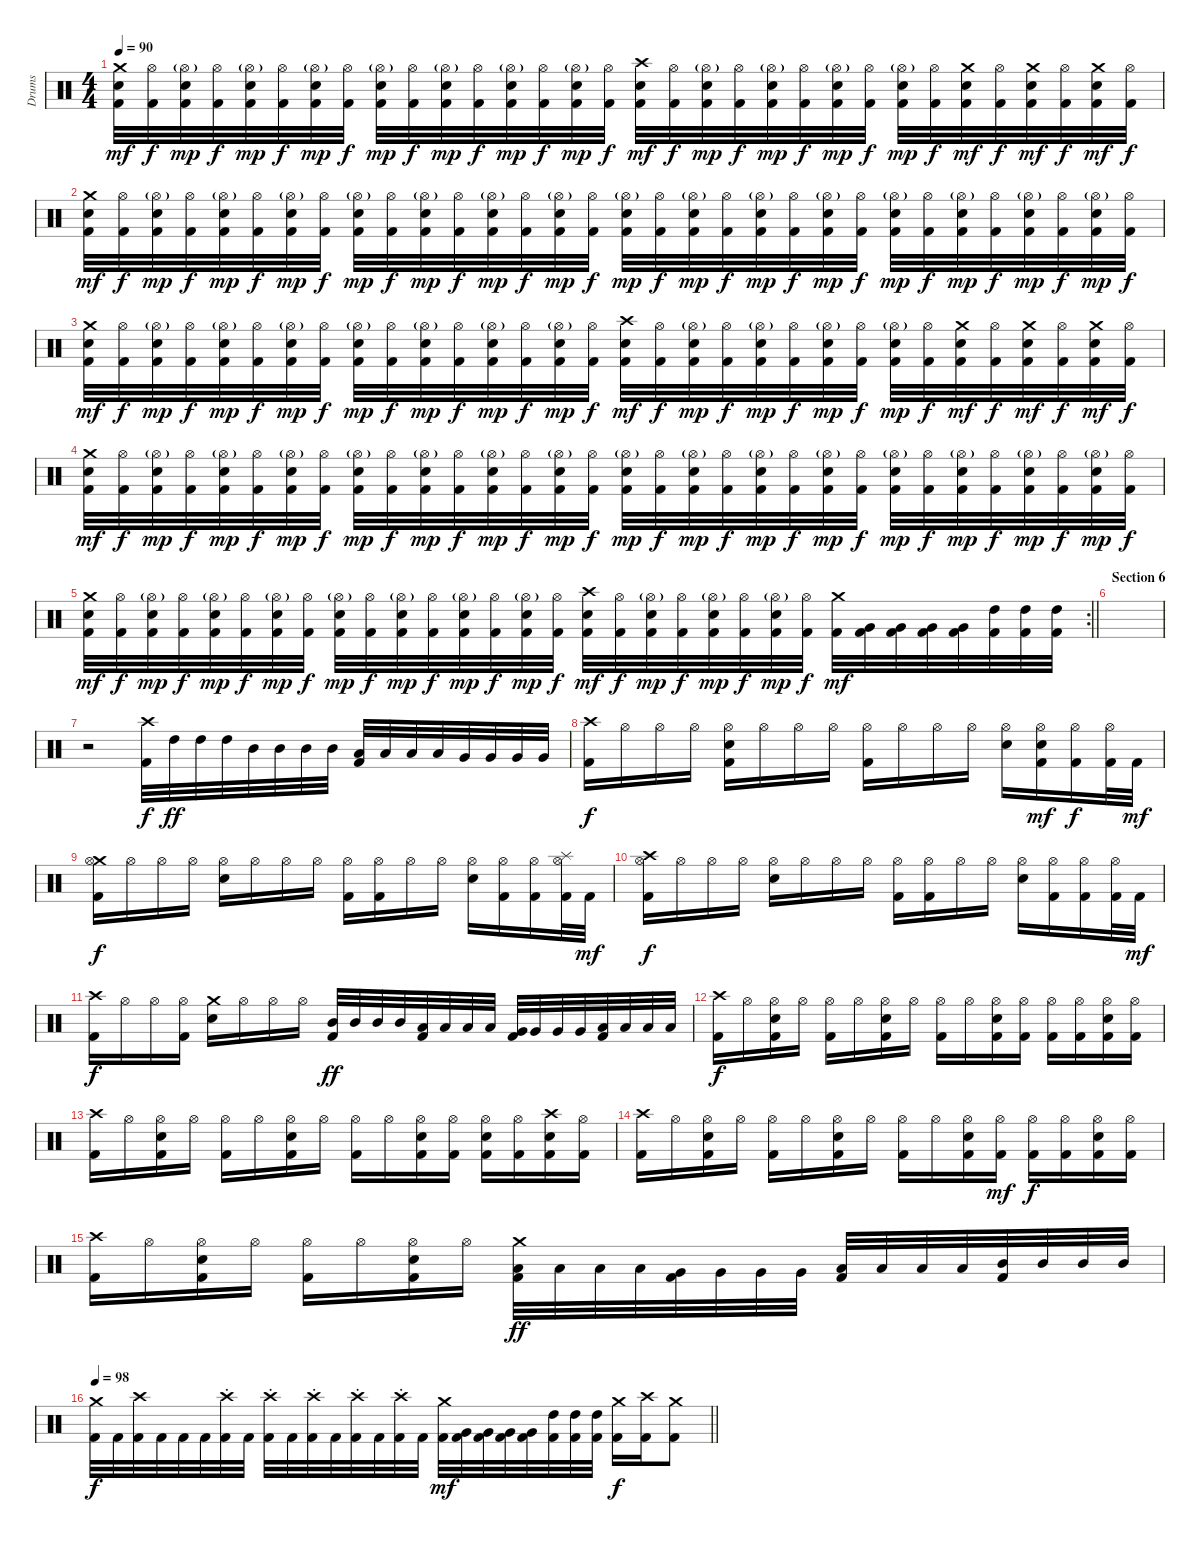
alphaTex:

\track ("Drums" "Drums") {instrument percussion}
\staff {score}
\articulation defaults
\ts (4 4)
\tempo 90
\clef neutral
\ks c
("Crash medium (hit)" "Snare (hit) 2" "Kick (hit) 2").32{dy mf} ("Hi-Hat (open)" "Kick (hit) 2").32{dy f} ("Snare (hit) 2" "Hi-Hat (open)"{g} "Kick (hit) 2").32{dy mp} ("Hi-Hat (open)" "Kick (hit) 2").32{dy f} ("Snare (hit) 2" "Hi-Hat (open)"{g} "Kick (hit) 2").32{dy mp} ("Hi-Hat (open)" "Kick (hit) 2").32{dy f} ("Snare (hit) 2" "Hi-Hat (open)"{g} "Kick (hit) 2").32{dy mp} ("Hi-Hat (open)" "Kick (hit) 2").32{dy f} ("Snare (hit) 2" "Hi-Hat (open)"{g} "Kick (hit) 2").32{dy mp} ("Hi-Hat (open)" "Kick (hit) 2").32{dy f} ("Snare (hit) 2" "Hi-Hat (open)"{g} "Kick (hit) 2").32{dy mp} ("Hi-Hat (open)" "Kick (hit) 2").32{dy f} ("Snare (hit) 2" "Hi-Hat (open)"{g} "Kick (hit) 2").32{dy mp} ("Hi-Hat (open)" "Kick (hit) 2").32{dy f} ("Snare (hit) 2" "Hi-Hat (open)"{g} "Kick (hit) 2").32{dy mp} ("Hi-Hat (open)" "Kick (hit) 2").32{dy f} ("Crash high (hit)" "Snare (hit) 2" "Kick (hit) 2").32{dy mf} ("Hi-Hat (open)" "Kick (hit) 2").32{dy f} ("Snare (hit) 2" "Hi-Hat (open)"{g} "Kick (hit) 2").32{dy mp} ("Hi-Hat (open)" "Kick (hit) 2").32{dy f} ("Snare (hit) 2" "Hi-Hat (open)"{g} "Kick (hit) 2").32{dy mp} ("Hi-Hat (open)" "Kick (hit) 2").32{dy f} ("Snare (hit) 2" "Hi-Hat (open)"{g} "Kick (hit) 2").32{dy mp} ("Hi-Hat (open)" "Kick (hit) 2").32{dy f} ("Snare (hit) 2" "Hi-Hat (open)"{g} "Kick (hit) 2").32{dy mp} ("Hi-Hat (open)" "Kick (hit) 2").32{dy f} ("Snare (hit) 2" "Crash medium (hit)" "Kick (hit) 2").32{dy mf} ("Hi-Hat (open)" "Kick (hit) 2").32{dy f} ("Snare (hit) 2" "Crash medium (hit)" "Kick (hit) 2").32{dy mf} ("Hi-Hat (open)" "Kick (hit) 2").32{dy f} ("Snare (hit) 2" "Crash medium (hit)" "Kick (hit) 2").32{dy mf} ("Hi-Hat (open)" "Kick (hit) 2").32{dy f} |
("Crash medium (hit)" "Snare (hit) 2" "Kick (hit) 2").32{dy mf} ("Hi-Hat (open)" "Kick (hit) 2").32{dy f} ("Snare (hit) 2" "Hi-Hat (open)"{g} "Kick (hit) 2").32{dy mp} ("Hi-Hat (open)" "Kick (hit) 2").32{dy f} ("Snare (hit) 2" "Hi-Hat (open)"{g} "Kick (hit) 2").32{dy mp} ("Hi-Hat (open)" "Kick (hit) 2").32{dy f} ("Snare (hit) 2" "Hi-Hat (open)"{g} "Kick (hit) 2").32{dy mp} ("Hi-Hat (open)" "Kick (hit) 2").32{dy f} ("Snare (hit) 2" "Hi-Hat (open)"{g} "Kick (hit) 2").32{dy mp} ("Hi-Hat (open)" "Kick (hit) 2").32{dy f} ("Snare (hit) 2" "Hi-Hat (open)"{g} "Kick (hit) 2").32{dy mp} ("Hi-Hat (open)" "Kick (hit) 2").32{dy f} ("Snare (hit) 2" "Hi-Hat (open)"{g} "Kick (hit) 2").32{dy mp} ("Hi-Hat (open)" "Kick (hit) 2").32{dy f} ("Snare (hit) 2" "Hi-Hat (open)"{g} "Kick (hit) 2").32{dy mp} ("Hi-Hat (open)" "Kick (hit) 2").32{dy f} ("Snare (hit) 2" "Hi-Hat (open)"{g} "Kick (hit) 2").32{dy mp} ("Hi-Hat (open)" "Kick (hit) 2").32{dy f} ("Snare (hit) 2" "Hi-Hat (open)"{g} "Kick (hit) 2").32{dy mp} ("Hi-Hat (open)" "Kick (hit) 2").32{dy f} ("Snare (hit) 2" "Hi-Hat (open)"{g} "Kick (hit) 2").32{dy mp} ("Hi-Hat (open)" "Kick (hit) 2").32{dy f} ("Snare (hit) 2" "Hi-Hat (open)"{g} "Kick (hit) 2").32{dy mp} ("Hi-Hat (open)" "Kick (hit) 2").32{dy f} ("Snare (hit) 2" "Hi-Hat (open)"{g} "Kick (hit) 2").32{dy mp} ("Hi-Hat (open)" "Kick (hit) 2").32{dy f} ("Snare (hit) 2" "Hi-Hat (open)"{g} "Kick (hit) 2").32{dy mp} ("Hi-Hat (open)" "Kick (hit) 2").32{dy f} ("Snare (hit) 2" "Hi-Hat (open)"{g} "Kick (hit) 2").32{dy mp} ("Hi-Hat (open)" "Kick (hit) 2").32{dy f} ("Snare (hit) 2" "Hi-Hat (open)"{g} "Kick (hit) 2").32{dy mp} ("Hi-Hat (open)" "Kick (hit) 2").32{dy f} |
("Crash medium (hit)" "Snare (hit) 2" "Kick (hit) 2").32{dy mf} ("Hi-Hat (open)" "Kick (hit) 2").32{dy f} ("Snare (hit) 2" "Hi-Hat (open)"{g} "Kick (hit) 2").32{dy mp} ("Hi-Hat (open)" "Kick (hit) 2").32{dy f} ("Snare (hit) 2" "Hi-Hat (open)"{g} "Kick (hit) 2").32{dy mp} ("Hi-Hat (open)" "Kick (hit) 2").32{dy f} ("Snare (hit) 2" "Hi-Hat (open)"{g} "Kick (hit) 2").32{dy mp} ("Hi-Hat (open)" "Kick (hit) 2").32{dy f} ("Snare (hit) 2" "Hi-Hat (open)"{g} "Kick (hit) 2").32{dy mp} ("Hi-Hat (open)" "Kick (hit) 2").32{dy f} ("Snare (hit) 2" "Hi-Hat (open)"{g} "Kick (hit) 2").32{dy mp} ("Hi-Hat (open)" "Kick (hit) 2").32{dy f} ("Snare (hit) 2" "Hi-Hat (open)"{g} "Kick (hit) 2").32{dy mp} ("Hi-Hat (open)" "Kick (hit) 2").32{dy f} ("Snare (hit) 2" "Hi-Hat (open)"{g} "Kick (hit) 2").32{dy mp} ("Hi-Hat (open)" "Kick (hit) 2").32{dy f} ("Crash high (hit)" "Snare (hit) 2" "Kick (hit) 2").32{dy mf} ("Hi-Hat (open)" "Kick (hit) 2").32{dy f} ("Snare (hit) 2" "Hi-Hat (open)"{g} "Kick (hit) 2").32{dy mp} ("Hi-Hat (open)" "Kick (hit) 2").32{dy f} ("Snare (hit) 2" "Hi-Hat (open)"{g} "Kick (hit) 2").32{dy mp} ("Hi-Hat (open)" "Kick (hit) 2").32{dy f} ("Snare (hit) 2" "Hi-Hat (open)"{g} "Kick (hit) 2").32{dy mp} ("Hi-Hat (open)" "Kick (hit) 2").32{dy f} ("Snare (hit) 2" "Hi-Hat (open)"{g} "Kick (hit) 2").32{dy mp} ("Hi-Hat (open)" "Kick (hit) 2").32{dy f} ("Snare (hit) 2" "Crash medium (hit)" "Kick (hit) 2").32{dy mf} ("Hi-Hat (open)" "Kick (hit) 2").32{dy f} ("Snare (hit) 2" "Crash medium (hit)" "Kick (hit) 2").32{dy mf} ("Hi-Hat (open)" "Kick (hit) 2").32{dy f} ("Snare (hit) 2" "Crash medium (hit)" "Kick (hit) 2").32{dy mf} ("Hi-Hat (open)" "Kick (hit) 2").32{dy f} |
("Crash medium (hit)" "Snare (hit) 2" "Kick (hit) 2").32{dy mf} ("Hi-Hat (open)" "Kick (hit) 2").32{dy f} ("Snare (hit) 2" "Hi-Hat (open)"{g} "Kick (hit) 2").32{dy mp} ("Hi-Hat (open)" "Kick (hit) 2").32{dy f} ("Snare (hit) 2" "Hi-Hat (open)"{g} "Kick (hit) 2").32{dy mp} ("Hi-Hat (open)" "Kick (hit) 2").32{dy f} ("Snare (hit) 2" "Hi-Hat (open)"{g} "Kick (hit) 2").32{dy mp} ("Hi-Hat (open)" "Kick (hit) 2").32{dy f} ("Snare (hit) 2" "Hi-Hat (open)"{g} "Kick (hit) 2").32{dy mp} ("Hi-Hat (open)" "Kick (hit) 2").32{dy f} ("Snare (hit) 2" "Hi-Hat (open)"{g} "Kick (hit) 2").32{dy mp} ("Hi-Hat (open)" "Kick (hit) 2").32{dy f} ("Snare (hit) 2" "Hi-Hat (open)"{g} "Kick (hit) 2").32{dy mp} ("Hi-Hat (open)" "Kick (hit) 2").32{dy f} ("Snare (hit) 2" "Hi-Hat (open)"{g} "Kick (hit) 2").32{dy mp} ("Hi-Hat (open)" "Kick (hit) 2").32{dy f} ("Snare (hit) 2" "Hi-Hat (open)"{g} "Kick (hit) 2").32{dy mp} ("Hi-Hat (open)" "Kick (hit) 2").32{dy f} ("Snare (hit) 2" "Hi-Hat (open)"{g} "Kick (hit) 2").32{dy mp} ("Hi-Hat (open)" "Kick (hit) 2").32{dy f} ("Snare (hit) 2" "Hi-Hat (open)"{g} "Kick (hit) 2").32{dy mp} ("Hi-Hat (open)" "Kick (hit) 2").32{dy f} ("Snare (hit) 2" "Hi-Hat (open)"{g} "Kick (hit) 2").32{dy mp} ("Hi-Hat (open)" "Kick (hit) 2").32{dy f} ("Snare (hit) 2" "Hi-Hat (open)"{g} "Kick (hit) 2").32{dy mp} ("Hi-Hat (open)" "Kick (hit) 2").32{dy f} ("Snare (hit) 2" "Hi-Hat (open)"{g} "Kick (hit) 2").32{dy mp} ("Hi-Hat (open)" "Kick (hit) 2").32{dy f} ("Snare (hit) 2" "Hi-Hat (open)"{g} "Kick (hit) 2").32{dy mp} ("Hi-Hat (open)" "Kick (hit) 2").32{dy f} ("Snare (hit) 2" "Hi-Hat (open)"{g} "Kick (hit) 2").32{dy mp} ("Hi-Hat (open)" "Kick (hit) 2").32{dy f} |
\rc 2
\barLineRight lightlight
("Crash medium (hit)" "Snare (hit) 2" "Kick (hit) 2").32{dy mf} ("Hi-Hat (open)" "Kick (hit) 2").32{dy f} ("Snare (hit) 2" "Hi-Hat (open)"{g} "Kick (hit) 2").32{dy mp} ("Hi-Hat (open)" "Kick (hit) 2").32{dy f} ("Snare (hit) 2" "Hi-Hat (open)"{g} "Kick (hit) 2").32{dy mp} ("Hi-Hat (open)" "Kick (hit) 2").32{dy f} ("Snare (hit) 2" "Hi-Hat (open)"{g} "Kick (hit) 2").32{dy mp} ("Hi-Hat (open)" "Kick (hit) 2").32{dy f} ("Snare (hit) 2" "Hi-Hat (open)"{g} "Kick (hit) 2").32{dy mp} ("Hi-Hat (open)" "Kick (hit) 2").32{dy f} ("Snare (hit) 2" "Hi-Hat (open)"{g} "Kick (hit) 2").32{dy mp} ("Hi-Hat (open)" "Kick (hit) 2").32{dy f} ("Snare (hit) 2" "Hi-Hat (open)"{g} "Kick (hit) 2").32{dy mp} ("Hi-Hat (open)" "Kick (hit) 2").32{dy f} ("Snare (hit) 2" "Hi-Hat (open)"{g} "Kick (hit) 2").32{dy mp} ("Hi-Hat (open)" "Kick (hit) 2").32{dy f} ("Crash high (hit)" "Snare (hit) 2" "Kick (hit) 2").32{dy mf} ("Hi-Hat (open)" "Kick (hit) 2").32{dy f} ("Snare (hit) 2" "Hi-Hat (open)"{g} "Kick (hit) 2").32{dy mp} ("Hi-Hat (open)" "Kick (hit) 2").32{dy f} ("Snare (hit) 2" "Hi-Hat (open)"{g} "Kick (hit) 2").32{dy mp} ("Hi-Hat (open)" "Kick (hit) 2").32{dy f} ("Snare (hit) 2" "Hi-Hat (open)"{g} "Kick (hit) 2").32{dy mp} ("Hi-Hat (open)" "Kick (hit) 2").32{dy f} ("Crash medium (hit)" "Kick (hit) 2").32{dy mf} ("Very Low Tom (hit)" "Kick (hit) 2").32 ("Very Low Tom (hit)" "Kick (hit) 2").32 ("Very Low Tom (hit)" "Kick (hit) 2").32 ("Very Low Tom (hit)" "Kick (hit) 2").32 ("High Tom (hit)" "Kick (hit) 2").32 ("High Tom (hit)" "Kick (hit) 2").32 ("High Tom (hit)" "Kick (hit) 2").32 |
\section ("" "Section 6")
|
r.2 ("Crash high (hit)" "Kick (hit) 2").32{dy f} "High Tom (hit)".32{dy ff} "High Tom (hit)".32 "High Tom (hit)".32 "Mid Tom (hit)".32 "Mid Tom (hit)".32 "Mid Tom (hit)".32 "Mid Tom (hit)".32 ("Low Tom (hit)" "Kick (hit) 2").32 "Low Tom (hit)".32 "Low Tom (hit)".32 "Low Tom (hit)".32 "Very Low Tom (hit)".32 "Very Low Tom (hit)".32 "Very Low Tom (hit)".32 "Very Low Tom (hit)".32 |
("Crash high (hit)" "Kick (hit) 2").16{dy f} "Hi-Hat (open)".16 "Hi-Hat (open)".16 "Hi-Hat (open)".16 ("Snare (hit) 2" "Hi-Hat (open)" "Kick (hit) 2").16 "Hi-Hat (open)".16 "Hi-Hat (open)".16 "Hi-Hat (open)".16 ("Hi-Hat (open)" "Kick (hit) 2").16 "Hi-Hat (open)".16 "Hi-Hat (open)".16 "Hi-Hat (open)".16 ("Snare (hit) 2" "Hi-Hat (open)").16 ("Snare (hit) 2" "Hi-Hat (open)" "Kick (hit) 2").16{dy mf} ("Hi-Hat (open)" "Kick (hit) 2").16{dy f} ("Hi-Hat (open)" "Kick (hit) 2").32 "Kick (hit) 2".32{dy mf} |
("Crash medium (hit)" "Hi-Hat (open)" "Kick (hit) 2").16{dy f} "Hi-Hat (open)".16 "Hi-Hat (open)".16 "Hi-Hat (open)".16 ("Snare (hit) 2" "Hi-Hat (open)").16 "Hi-Hat (open)".16 "Hi-Hat (open)".16 "Hi-Hat (open)".16 ("Hi-Hat (open)" "Kick (hit) 2").16 ("Hi-Hat (open)" "Kick (hit) 2").16 "Hi-Hat (open)".16 "Hi-Hat (open)".16 ("Snare (hit) 2" "Hi-Hat (open)").16 ("Hi-Hat (open)" "Kick (hit) 2").16 ("Hi-Hat (open)" "Kick (hit) 2").16 ("Splash (hit)" "Hi-Hat (open)" "Kick (hit) 2").32 "Kick (hit) 2".32{dy mf} |
("Crash high (hit)" "Hi-Hat (open)" "Kick (hit) 2").16{dy f} "Hi-Hat (open)".16 "Hi-Hat (open)".16 "Hi-Hat (open)".16 ("Snare (hit) 2" "Hi-Hat (open)").16 "Hi-Hat (open)".16 "Hi-Hat (open)".16 "Hi-Hat (open)".16 ("Hi-Hat (open)" "Kick (hit) 2").16 ("Hi-Hat (open)" "Kick (hit) 2").16 "Hi-Hat (open)".16 "Hi-Hat (open)".16 ("Snare (hit) 2" "Hi-Hat (open)").16 ("Hi-Hat (open)" "Kick (hit) 2").16 ("Hi-Hat (open)" "Kick (hit) 2").16 ("Hi-Hat (open)" "Kick (hit) 2").32 "Kick (hit) 2".32{dy mf} |
("Crash high (hit)" "Kick (hit) 2").16{dy f} "Hi-Hat (open)".16 "Hi-Hat (open)".16 ("Hi-Hat (open)" "Kick (hit) 2").16 ("Crash medium (hit)" "Snare (hit) 2").16 "Hi-Hat (open)".16 "Hi-Hat (open)".16 "Hi-Hat (open)".16 ("Mid Tom (hit)" "Kick (hit) 2").32{dy ff} "Mid Tom (hit)".32 "Mid Tom (hit)".32 "Mid Tom (hit)".32 ("Low Tom (hit)" "Kick (hit) 2").32 "Low Tom (hit)".32 "Low Tom (hit)".32 "Low Tom (hit)".32 ("Very Low Tom (hit)" "Kick (hit) 2").32 "Very Low Tom (hit)".32 "Very Low Tom (hit)".32 "Very Low Tom (hit)".32 ("Low Floor Tom (hit)" "Kick (hit) 2").32 "Low Floor Tom (hit)".32 "Low Floor Tom (hit)".32 "Low Floor Tom (hit)".32 |
("Crash high (hit)" "Kick (hit) 2").16{dy f} "Hi-Hat (open)".16 ("Snare (hit) 2" "Hi-Hat (open)" "Kick (hit) 2").16 "Hi-Hat (open)".16 ("Hi-Hat (open)" "Kick (hit) 2").16 "Hi-Hat (open)".16 ("Snare (hit) 2" "Hi-Hat (open)" "Kick (hit) 2").16 "Hi-Hat (open)".16 ("Hi-Hat (open)" "Kick (hit) 2").16 "Hi-Hat (open)".16 ("Snare (hit) 2" "Hi-Hat (open)" "Kick (hit) 2").16 ("Hi-Hat (open)" "Kick (hit) 2").16 ("Hi-Hat (open)" "Kick (hit) 2").16 ("Hi-Hat (open)" "Kick (hit) 2").16 ("Snare (hit) 2" "Hi-Hat (open)" "Kick (hit) 2").16 ("Hi-Hat (open)" "Kick (hit) 2").16 |
("Crash high (hit)" "Kick (hit) 2").16 "Hi-Hat (open)".16 ("Snare (hit) 2" "Hi-Hat (open)" "Kick (hit) 2").16 "Hi-Hat (open)".16 ("Hi-Hat (open)" "Kick (hit) 2").16 "Hi-Hat (open)".16 ("Snare (hit) 2" "Hi-Hat (open)" "Kick (hit) 2").16 "Hi-Hat (open)".16 ("Hi-Hat (open)" "Kick (hit) 2").16 "Hi-Hat (open)".16 ("Snare (hit) 2" "Hi-Hat (open)" "Kick (hit) 2").16 ("Hi-Hat (open)" "Kick (hit) 2").16 ("Snare (hit) 2" "Hi-Hat (open)" "Kick (hit) 2").16 ("Hi-Hat (open)" "Kick (hit) 2").16 ("Crash high (hit)" "Snare (hit) 2" "Kick (hit) 2").16 ("Hi-Hat (open)" "Kick (hit) 2").16 |
("Crash high (hit)" "Kick (hit) 2").16 "Hi-Hat (open)".16 ("Snare (hit) 2" "Hi-Hat (open)" "Kick (hit) 2").16 "Hi-Hat (open)".16 ("Hi-Hat (open)" "Kick (hit) 2").16 "Hi-Hat (open)".16 ("Snare (hit) 2" "Hi-Hat (open)" "Kick (hit) 2").16 "Hi-Hat (open)".16 ("Hi-Hat (open)" "Kick (hit) 2").16 "Hi-Hat (open)".16 ("Snare (hit) 2" "Hi-Hat (open)" "Kick (hit) 2").16 ("Hi-Hat (open)" "Kick (hit) 2").16{dy mf} ("Hi-Hat (open)" "Kick (hit) 2").16{dy f} ("Hi-Hat (open)" "Kick (hit) 2").16 ("Snare (hit) 2" "Hi-Hat (open)" "Kick (hit) 2").16 ("Hi-Hat (open)" "Kick (hit) 2").16 |
("Crash high (hit)" "Kick (hit) 2").16 "Hi-Hat (open)".16 ("Snare (hit) 2" "Hi-Hat (open)" "Kick (hit) 2").16 "Hi-Hat (open)".16 ("Hi-Hat (open)" "Kick (hit) 2").16 "Hi-Hat (open)".16 ("Snare (hit) 2" "Hi-Hat (open)" "Kick (hit) 2").16 "Hi-Hat (open)".16 ("Crash medium (hit)" "Low Floor Tom (hit)" "Kick (hit) 2").32{dy ff} "Low Floor Tom (hit)".32 "Low Floor Tom (hit)".32 "Low Floor Tom (hit)".32 ("Very Low Tom (hit)" "Kick (hit) 2").32 "Very Low Tom (hit)".32 "Very Low Tom (hit)".32 "Very Low Tom (hit)".32 ("Low Tom (hit)" "Kick (hit) 2").32 "Low Tom (hit)".32 "Low Tom (hit)".32 "Low Tom (hit)".32 ("Mid Tom (hit)" "Kick (hit) 2").32 "Mid Tom (hit)".32 "Mid Tom (hit)".32 "Mid Tom (hit)".32 |
\tempo 98
\barLineRight lightlight
("Crash medium (hit)" "Kick (hit) 2").32{dy f} "Kick (hit) 2".32 ("Crash high (hit)" "Kick (hit) 2").32 "Kick (hit) 2".32 "Kick (hit) 2".32 "Kick (hit) 2".32 ("Crash high (hit)"{st} "Kick (hit) 2").32 "Kick (hit) 2".32 ("Crash high (hit)"{st} "Kick (hit) 2").32 "Kick (hit) 2".32 ("Crash high (hit)"{st} "Kick (hit) 2").32 "Kick (hit) 2".32 ("Crash high (hit)"{st} "Kick (hit) 2").32 "Kick (hit) 2".32 ("Crash high (hit)"{st} "Kick (hit) 2").32 "Kick (hit) 2".32 ("Crash medium (hit)" "Kick (hit) 2").32{dy mf} ("Very Low Tom (hit)" "Kick (hit) 2").32 ("Very Low Tom (hit)" "Kick (hit) 2").32 ("Very Low Tom (hit)" "Kick (hit) 2").32 ("Very Low Tom (hit)" "Kick (hit) 2").32 ("High Tom (hit)" "Kick (hit) 2").32 ("High Tom (hit)" "Kick (hit) 2").32 ("High Tom (hit)" "Kick (hit) 2").32 ("Crash medium (hit)" "Kick (hit) 2").16{dy f} ("Crash high (hit)" "Kick (hit) 2").16 ("Crash medium (hit)" "Kick (hit) 2").8
